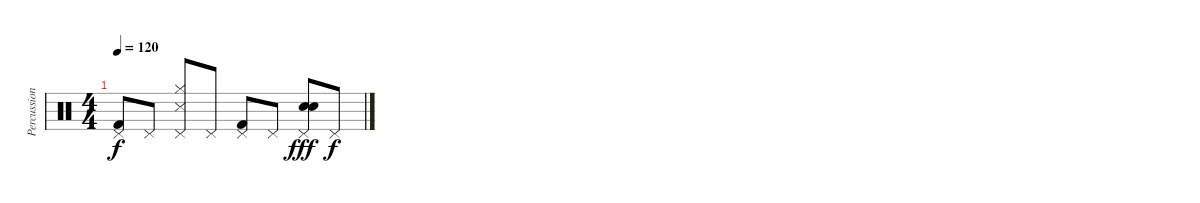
\track ("Percussion" "Percussion") {instrument percussion}
\staff {score}
\articulation defaults
\ts (4 4)
\tempo 120
\clef neutral
\ks c
("Pedal Hi-Hat (hit)" "Kick (hit) 2").8{dy f} "Pedal Hi-Hat (hit)".8 ("Pedal Hi-Hat (hit)" "Hi-Hat (closed)" "Snare (side stick) 3").8 "Pedal Hi-Hat (hit)".8 ("Pedal Hi-Hat (hit)" "Kick (hit) 2").8 "Pedal Hi-Hat (hit)".8 ("Pedal Hi-Hat (hit)" "Hand Clap (hit)" "Hand Clap (hit)").8{dy fff} "Pedal Hi-Hat (hit)".8{dy f}
